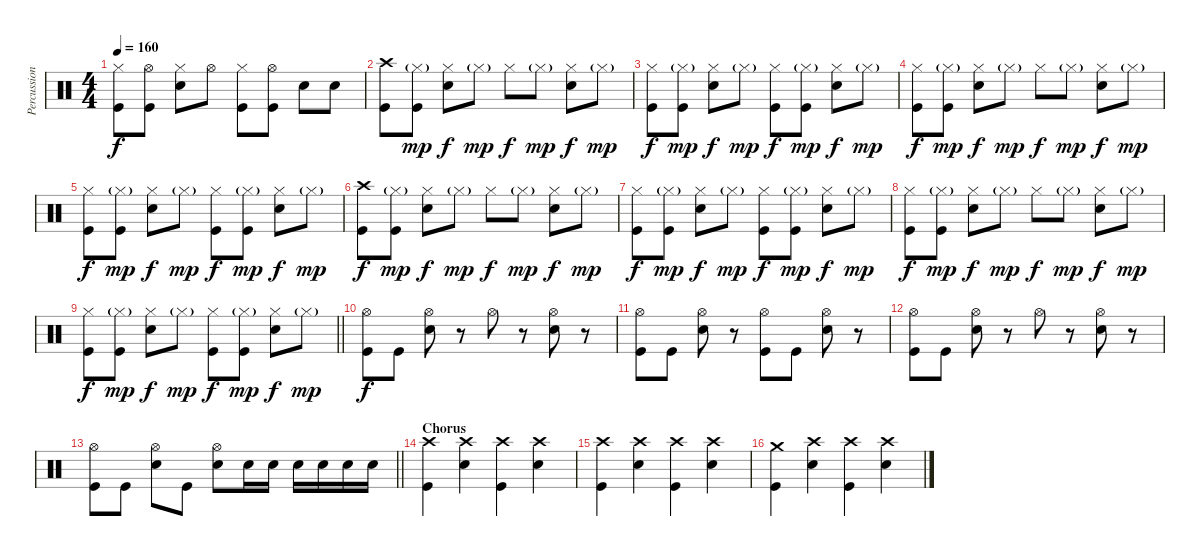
\track ("Percussions" "Percussion") {instrument percussion}
\staff {score}
\articulation defaults
\ts (4 4)
\tempo 160
\clef neutral
\ks c
("Kick (hit)" "Hi-Hat (closed)").8{dy f} ("Kick (hit)" "Hi-Hat (open)").8 ("Snare (hit) 2" "Hi-Hat (closed)").8 "Hi-Hat (open)".8 ("Kick (hit)" "Hi-Hat (closed)").8 ("Kick (hit)" "Hi-Hat (open)").8 "Snare (hit) 2".8 "Snare (hit) 2".8 |
("Kick (hit)" "Crash high (hit)").8 ("Kick (hit)" "Hi-Hat (closed)"{g}).8{dy mp} ("Snare (hit) 2" "Hi-Hat (closed)").8{dy f} "Hi-Hat (closed)"{g}.8{dy mp} "Hi-Hat (closed)".8{dy f} "Hi-Hat (closed)"{g}.8{dy mp} ("Snare (hit) 2" "Hi-Hat (closed)").8{dy f} "Hi-Hat (closed)"{g}.8{dy mp} |
("Kick (hit)" "Hi-Hat (closed)").8{dy f} ("Kick (hit)" "Hi-Hat (closed)"{g}).8{dy mp} ("Snare (hit) 2" "Hi-Hat (closed)").8{dy f} "Hi-Hat (closed)"{g}.8{dy mp} ("Kick (hit)" "Hi-Hat (closed)").8{dy f} ("Kick (hit)" "Hi-Hat (closed)"{g}).8{dy mp} ("Snare (hit) 2" "Hi-Hat (closed)").8{dy f} "Hi-Hat (closed)"{g}.8{dy mp} |
("Kick (hit)" "Hi-Hat (closed)").8{dy f} ("Kick (hit)" "Hi-Hat (closed)"{g}).8{dy mp} ("Snare (hit) 2" "Hi-Hat (closed)").8{dy f} "Hi-Hat (closed)"{g}.8{dy mp} "Hi-Hat (closed)".8{dy f} "Hi-Hat (closed)"{g}.8{dy mp} ("Snare (hit) 2" "Hi-Hat (closed)").8{dy f} "Hi-Hat (closed)"{g}.8{dy mp} |
("Kick (hit)" "Hi-Hat (closed)").8{dy f} ("Kick (hit)" "Hi-Hat (closed)"{g}).8{dy mp} ("Snare (hit) 2" "Hi-Hat (closed)").8{dy f} "Hi-Hat (closed)"{g}.8{dy mp} ("Kick (hit)" "Hi-Hat (closed)").8{dy f} ("Kick (hit)" "Hi-Hat (closed)"{g}).8{dy mp} ("Snare (hit) 2" "Hi-Hat (closed)").8{dy f} "Hi-Hat (closed)"{g}.8{dy mp} |
("Kick (hit)" "Crash high (hit)").8{dy f} ("Kick (hit)" "Hi-Hat (closed)"{g}).8{dy mp} ("Snare (hit) 2" "Hi-Hat (closed)").8{dy f} "Hi-Hat (closed)"{g}.8{dy mp} "Hi-Hat (closed)".8{dy f} "Hi-Hat (closed)"{g}.8{dy mp} ("Snare (hit) 2" "Hi-Hat (closed)").8{dy f} "Hi-Hat (closed)"{g}.8{dy mp} |
("Kick (hit)" "Hi-Hat (closed)").8{dy f} ("Kick (hit)" "Hi-Hat (closed)"{g}).8{dy mp} ("Snare (hit) 2" "Hi-Hat (closed)").8{dy f} "Hi-Hat (closed)"{g}.8{dy mp} ("Kick (hit)" "Hi-Hat (closed)").8{dy f} ("Kick (hit)" "Hi-Hat (closed)"{g}).8{dy mp} ("Snare (hit) 2" "Hi-Hat (closed)").8{dy f} "Hi-Hat (closed)"{g}.8{dy mp} |
("Kick (hit)" "Hi-Hat (closed)").8{dy f} ("Kick (hit)" "Hi-Hat (closed)"{g}).8{dy mp} ("Snare (hit) 2" "Hi-Hat (closed)").8{dy f} "Hi-Hat (closed)"{g}.8{dy mp} "Hi-Hat (closed)".8{dy f} "Hi-Hat (closed)"{g}.8{dy mp} ("Snare (hit) 2" "Hi-Hat (closed)").8{dy f} "Hi-Hat (closed)"{g}.8{dy mp} |
\barLineRight lightlight
("Kick (hit)" "Hi-Hat (closed)").8{dy f} ("Kick (hit)" "Hi-Hat (closed)"{g}).8{dy mp} ("Snare (hit) 2" "Hi-Hat (closed)").8{dy f} "Hi-Hat (closed)"{g}.8{dy mp} ("Kick (hit)" "Hi-Hat (closed)").8{dy f} ("Kick (hit)" "Hi-Hat (closed)"{g}).8{dy mp} ("Snare (hit) 2" "Hi-Hat (closed)").8{dy f} "Hi-Hat (closed)"{g}.8{dy mp} |
("Kick (hit)" "Hi-Hat (open)").8{dy f} "Kick (hit)".8 ("Snare (hit) 2" "Hi-Hat (open)").8 r.8 "Hi-Hat (open)".8 r.8 ("Snare (hit) 2" "Hi-Hat (open)").8 r.8 |
("Kick (hit)" "Hi-Hat (open)").8 "Kick (hit)".8 ("Snare (hit) 2" "Hi-Hat (open)").8 r.8 ("Kick (hit)" "Hi-Hat (open)").8 "Kick (hit)".8 ("Snare (hit) 2" "Hi-Hat (open)").8 r.8 |
("Kick (hit)" "Hi-Hat (open)").8 "Kick (hit)".8 ("Snare (hit) 2" "Hi-Hat (open)").8 r.8 "Hi-Hat (open)".8 r.8 ("Snare (hit) 2" "Hi-Hat (open)").8 r.8 |
\barLineRight lightlight
("Kick (hit)" "Hi-Hat (open)").8 "Kick (hit)".8 ("Snare (hit) 2" "Hi-Hat (open)").8 "Kick (hit)".8 ("Snare (hit) 2" "Hi-Hat (open)").8 "Snare (hit) 2".16 "Snare (hit) 2".16 "Snare (hit) 2".16 "Snare (hit) 2".16 "Snare (hit) 2".16 "Snare (hit) 2".16 |
\section ("" "Chorus")
("Kick (hit)" "Crash high (hit)").4 ("Snare (hit) 2" "Crash high (hit)").4 ("Kick (hit)" "Crash high (hit)").4 ("Snare (hit) 2" "Crash high (hit)").4 |
("Kick (hit)" "Crash high (hit)").4 ("Snare (hit) 2" "Crash high (hit)").4 ("Kick (hit)" "Crash high (hit)").4 ("Snare (hit) 2" "Crash high (hit)").4 |
("Kick (hit)" "Crash medium (hit)").4 ("Snare (hit) 2" "Crash high (hit)").4 ("Kick (hit)" "Crash high (hit)").4 ("Snare (hit) 2" "Crash high (hit)").4
